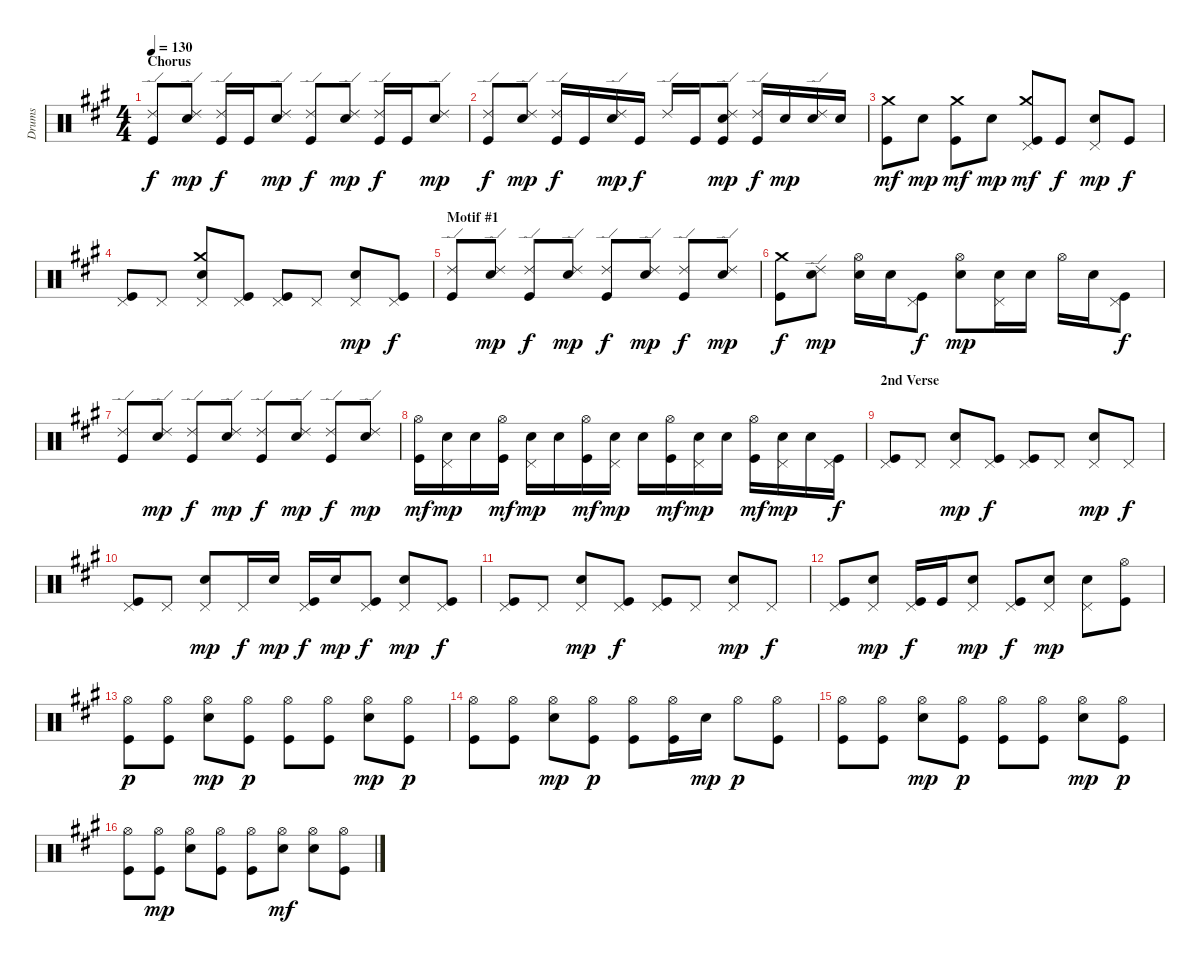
\track ("Drums" "Drums") {instrument percussion}
\staff {score}
\articulation defaults
\ts (4 4)
\section ("" "Chorus")
\tempo 130
\clef neutral
\ks a
("Ride (edge) 2" "Kick (hit)").8{dy f} ("Ride (edge) 2" "Electric Snare (hit)").8{dy mp} ("Ride (edge) 2" "Kick (hit)").16{dy f} "Kick (hit)".16 ("Ride (edge) 2" "Electric Snare (hit)").8{dy mp} ("Ride (edge) 2" "Kick (hit)").8{dy f} ("Ride (edge) 2" "Electric Snare (hit)").8{dy mp} ("Ride (edge) 2" "Kick (hit)").16{dy f} "Kick (hit)".16 ("Ride (edge) 2" "Electric Snare (hit)").8{dy mp} |
("Ride (edge) 2" "Kick (hit)").8{dy f} ("Ride (edge) 2" "Electric Snare (hit)").8{dy mp} ("Ride (edge) 2" "Kick (hit)").16{dy f} "Kick (hit)".16 ("Ride (edge) 2" "Electric Snare (hit)").16{dy mp} "Kick (hit)".16{dy f} "Ride (edge) 2".16 "Kick (hit)".16 ("Ride (edge) 2" "Electric Snare (hit)" "Kick (hit)").8{dy mp} ("Ride (edge) 2" "Kick (hit)").16{dy f} "Electric Snare (hit)".16{dy mp} ("Ride (edge) 2" "Electric Snare (hit)").16 "Electric Snare (hit)".16 |
("Crash medium (hit)" "Kick (hit)").8{dy mf} "Electric Snare (hit)".8{dy mp} ("Crash medium (hit)" "Kick (hit)").8{dy mf} "Electric Snare (hit)".8{dy mp} ("Crash medium (hit)" "Pedal Hi-Hat (hit)" "Kick (hit)").8{dy mf} "Kick (hit)".8{dy f} ("Pedal Hi-Hat (hit)" "Electric Snare (hit)").8{dy mp} "Kick (hit)".8{dy f} |
("Pedal Hi-Hat (hit)" "Kick (hit)").8 "Pedal Hi-Hat (hit)".8 ("Crash medium (hit)" "Pedal Hi-Hat (hit)" "Electric Snare (hit)").8 ("Pedal Hi-Hat (hit)" "Kick (hit)").8 ("Pedal Hi-Hat (hit)" "Kick (hit)").8 "Pedal Hi-Hat (hit)".8 ("Pedal Hi-Hat (hit)" "Electric Snare (hit)").8{dy mp} ("Pedal Hi-Hat (hit)" "Kick (hit)").8{dy f} |
\section ("" "Motif #1")
("Ride (edge) 2" "Kick (hit)").8 ("Ride (edge) 2" "Electric Snare (hit)").8{dy mp} ("Ride (edge) 2" "Kick (hit)").8{dy f} ("Ride (edge) 2" "Electric Snare (hit)").8{dy mp} ("Ride (edge) 2" "Kick (hit)").8{dy f} ("Ride (edge) 2" "Electric Snare (hit)").8{dy mp} ("Ride (edge) 2" "Kick (hit)").8{dy f} ("Ride (edge) 2" "Electric Snare (hit)").8{dy mp} |
("Crash medium (hit)" "Kick (hit)").8{dy f} ("Ride (edge) 2" "Electric Snare (hit)").8{dy mp} ("Hi-Hat (open)" "Electric Snare (hit)").16 "Electric Snare (hit)".16 ("Pedal Hi-Hat (hit)" "Kick (hit)").8{dy f} ("Hi-Hat (open)" "Electric Snare (hit)").8{dy mp} ("Pedal Hi-Hat (hit)" "Electric Snare (hit)").16 "Electric Snare (hit)".16 "Hi-Hat (open)".16 "Electric Snare (hit)".16 ("Pedal Hi-Hat (hit)" "Kick (hit)").8{dy f} |
("Ride (edge) 2" "Kick (hit)").8 ("Ride (edge) 2" "Electric Snare (hit)").8{dy mp} ("Ride (edge) 2" "Kick (hit)").8{dy f} ("Ride (edge) 2" "Electric Snare (hit)").8{dy mp} ("Ride (edge) 2" "Kick (hit)").8{dy f} ("Ride (edge) 2" "Electric Snare (hit)").8{dy mp} ("Ride (edge) 2" "Kick (hit)").8{dy f} ("Ride (edge) 2" "Electric Snare (hit)").8{dy mp} |
("Hi-Hat (open)" "Kick (hit)").16{dy mf} ("Pedal Hi-Hat (hit)" "Electric Snare (hit)").16{dy mp} "Electric Snare (hit)".16 ("Hi-Hat (open)" "Kick (hit)").16{dy mf} ("Pedal Hi-Hat (hit)" "Electric Snare (hit)").16{dy mp} "Electric Snare (hit)".16 ("Hi-Hat (open)" "Kick (hit)").16{dy mf} ("Pedal Hi-Hat (hit)" "Electric Snare (hit)").16{dy mp} "Electric Snare (hit)".16 ("Hi-Hat (open)" "Kick (hit)").16{dy mf} ("Pedal Hi-Hat (hit)" "Electric Snare (hit)").16{dy mp} "Electric Snare (hit)".16 ("Hi-Hat (open)" "Kick (hit)").16{dy mf} ("Pedal Hi-Hat (hit)" "Electric Snare (hit)").16{dy mp} "Electric Snare (hit)".16 ("Pedal Hi-Hat (hit)" "Kick (hit)").16{dy f} |
\section ("" "2nd Verse")
("Pedal Hi-Hat (hit)" "Kick (hit)").8 "Pedal Hi-Hat (hit)".8 ("Pedal Hi-Hat (hit)" "Electric Snare (hit)").8{dy mp} ("Pedal Hi-Hat (hit)" "Kick (hit)").8{dy f} ("Pedal Hi-Hat (hit)" "Kick (hit)").8 "Pedal Hi-Hat (hit)".8 ("Pedal Hi-Hat (hit)" "Electric Snare (hit)").8{dy mp} "Pedal Hi-Hat (hit)".8{dy f} |
("Pedal Hi-Hat (hit)" "Kick (hit)").8 "Pedal Hi-Hat (hit)".8 ("Pedal Hi-Hat (hit)" "Electric Snare (hit)").8{dy mp} "Pedal Hi-Hat (hit)".16{dy f} "Electric Snare (hit)".16{dy mp} ("Pedal Hi-Hat (hit)" "Kick (hit)").16{dy f} "Electric Snare (hit)".16{dy mp} ("Pedal Hi-Hat (hit)" "Kick (hit)").8{dy f} ("Pedal Hi-Hat (hit)" "Electric Snare (hit)").8{dy mp} ("Pedal Hi-Hat (hit)" "Kick (hit)").8{dy f} |
("Pedal Hi-Hat (hit)" "Kick (hit)").8 "Pedal Hi-Hat (hit)".8 ("Pedal Hi-Hat (hit)" "Electric Snare (hit)").8{dy mp} ("Pedal Hi-Hat (hit)" "Kick (hit)").8{dy f} ("Pedal Hi-Hat (hit)" "Kick (hit)").8 "Pedal Hi-Hat (hit)".8 ("Pedal Hi-Hat (hit)" "Electric Snare (hit)").8{dy mp} "Pedal Hi-Hat (hit)".8{dy f} |
("Pedal Hi-Hat (hit)" "Kick (hit)").8 ("Pedal Hi-Hat (hit)" "Electric Snare (hit)").8{dy mp} ("Pedal Hi-Hat (hit)" "Kick (hit)").16{dy f} "Kick (hit)".16 ("Pedal Hi-Hat (hit)" "Electric Snare (hit)").8{dy mp} ("Pedal Hi-Hat (hit)" "Kick (hit)").8{dy f} ("Pedal Hi-Hat (hit)" "Electric Snare (hit)").8{dy mp} ("Pedal Hi-Hat (hit)" "Electric Snare (hit)").8 ("Hi-Hat (open)" "Kick (hit)").8 |
("Hi-Hat (open)" "Kick (hit)").8{dy p} ("Hi-Hat (open)" "Kick (hit)").8 ("Hi-Hat (open)" "Electric Snare (hit)").8{dy mp} ("Hi-Hat (open)" "Kick (hit)").8{dy p} ("Hi-Hat (open)" "Kick (hit)").8 ("Hi-Hat (open)" "Kick (hit)").8 ("Hi-Hat (open)" "Electric Snare (hit)").8{dy mp} ("Hi-Hat (open)" "Kick (hit)").8{dy p} |
("Hi-Hat (open)" "Kick (hit)").8 ("Hi-Hat (open)" "Kick (hit)").8 ("Hi-Hat (open)" "Electric Snare (hit)").8{dy mp} ("Hi-Hat (open)" "Kick (hit)").8{dy p} ("Hi-Hat (open)" "Kick (hit)").8 ("Hi-Hat (open)" "Kick (hit)").16 "Electric Snare (hit)".16{dy mp} "Hi-Hat (open)".8{dy p} ("Hi-Hat (open)" "Kick (hit)").8 |
("Hi-Hat (open)" "Kick (hit)").8 ("Hi-Hat (open)" "Kick (hit)").8 ("Hi-Hat (open)" "Electric Snare (hit)").8{dy mp} ("Hi-Hat (open)" "Kick (hit)").8{dy p} ("Hi-Hat (open)" "Kick (hit)").8 ("Hi-Hat (open)" "Kick (hit)").8 ("Hi-Hat (open)" "Electric Snare (hit)").8{dy mp} ("Hi-Hat (open)" "Kick (hit)").8{dy p} |
("Hi-Hat (open)" "Kick (hit)").8 ("Hi-Hat (open)" "Kick (hit)").8{dy mp} ("Hi-Hat (open)" "Electric Snare (hit)").8 ("Hi-Hat (open)" "Kick (hit)").8 ("Hi-Hat (open)" "Kick (hit)").8 ("Hi-Hat (open)" "Electric Snare (hit)").8{dy mf} ("Hi-Hat (open)" "Electric Snare (hit)").8 ("Hi-Hat (open)" "Kick (hit)").8
